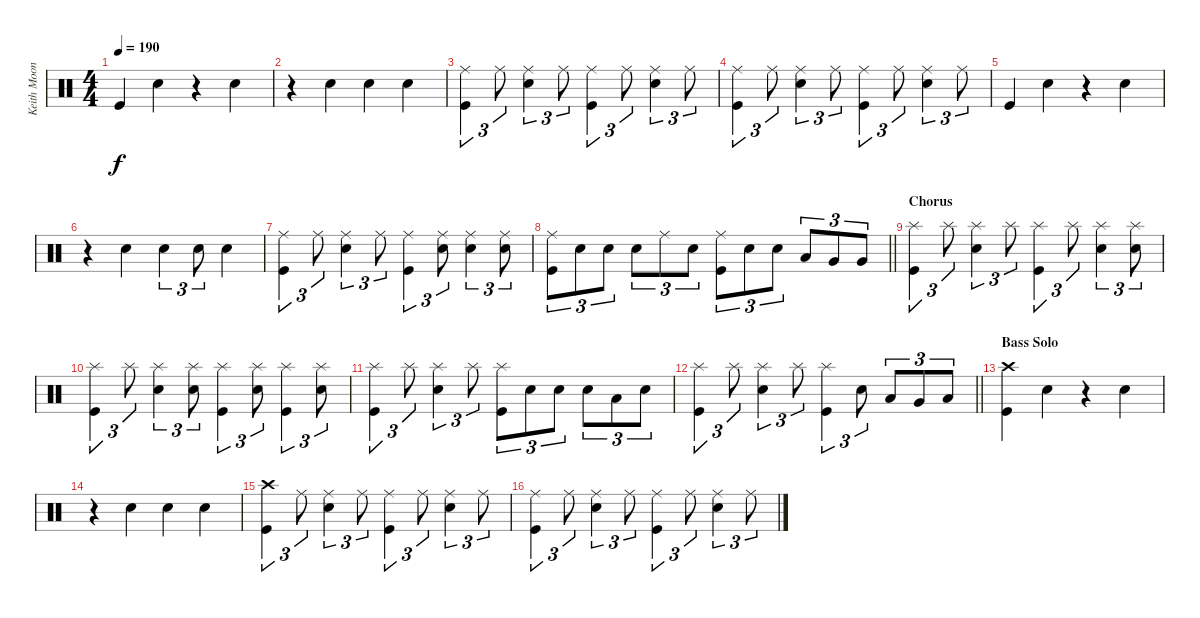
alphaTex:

\track ("Keith Moon" "Keith Moon") {instrument percussion}
\staff {score}
\articulation defaults
\ts (4 4)
\tempo 190
\clef neutral
\ks c "Kick (hit)".4{dy f} "Hand Clap (hit)".4
r.4 "Hand Clap (hit)".4 |
r.4 "Hand Clap (hit)".4 "Hand Clap (hit)".4 "Snare (hit) 2".4 |
("Ride (middle)" "Kick (hit)").4{tu (3 2)} "Ride (middle)".8{tu (3 2)} ("Ride (middle)" "Snare (hit) 2").4{tu (3 2)} "Ride (middle)".8{tu (3 2)} ("Ride (middle)" "Kick (hit)").4{tu (3 2)} "Ride (middle)".8{tu (3 2)} ("Ride (middle)" "Snare (hit) 2").4{tu (3 2)} "Ride (middle)".8{tu (3 2)} |
("Ride (middle)" "Kick (hit)").4{tu (3 2)} "Ride (middle)".8{tu (3 2)} ("Ride (middle)" "Snare (hit) 2").4{tu (3 2)} "Ride (middle)".8{tu (3 2)} ("Ride (middle)" "Kick (hit)").4{tu (3 2)} "Ride (middle)".8{tu (3 2)} ("Ride (middle)" "Snare (hit) 2").4{tu (3 2)} "Ride (middle)".8{tu (3 2)} |
"Kick (hit)".4 "Hand Clap (hit)".4 r.4 "Hand Clap (hit)".4 |
r.4 "Hand Clap (hit)".4 "Hand Clap (hit)".4{tu (3 2)} "Snare (hit) 2".8{tu (3 2)} "Snare (hit) 2".4 |
("Ride (middle)" "Kick (hit)").4{tu (3 2)} "Ride (middle)".8{tu (3 2)} ("Ride (middle)" "Snare (hit) 2").4{tu (3 2)} "Ride (middle)".8{tu (3 2)} ("Ride (middle)" "Kick (hit)").4{tu (3 2)} ("Ride (middle)" "Snare (hit) 2").8{tu (3 2)} ("Ride (middle)" "Snare (hit) 2").4{tu (3 2)} ("Ride (middle)" "Snare (hit) 2").8{tu (3 2)} |
\barLineRight lightlight
("Ride (middle)" "Kick (hit)").8{tu (3 2)} "Snare (hit) 2".8{tu (3 2)} "Snare (hit) 2".8{tu (3 2)} "Snare (hit) 2".8{tu (3 2)} "Ride (middle)".8{tu (3 2)} "Snare (hit) 2".8{tu (3 2)} ("Ride (middle)" "Kick (hit)").8{tu (3 2)} "Snare (hit) 2".8{tu (3 2)} "Snare (hit) 2".8{tu (3 2)} "Low Tom (hit)".8{tu (3 2)} "Very Low Tom (hit)".8{tu (3 2)} "Very Low Tom (hit)".8{tu (3 2)} |
\section ("" "Chorus")
("Splash (hit)" "Kick (hit)").4{tu (3 2)} "Splash (hit)".8{tu (3 2)} ("Splash (hit)" "Snare (hit) 2").4{tu (3 2)} "Splash (hit)".8{tu (3 2)} ("Splash (hit)" "Kick (hit)").4{tu (3 2)} "Splash (hit)".8{tu (3 2)} ("Splash (hit)" "Snare (hit) 2").4{tu (3 2)} ("Splash (hit)" "Snare (hit) 2").8{tu (3 2)} |
("Splash (hit)" "Kick (hit)").4{tu (3 2)} "Splash (hit)".8{tu (3 2)} ("Splash (hit)" "Snare (hit) 2").4{tu (3 2)} ("Splash (hit)" "Snare (hit) 2").8{tu (3 2)} ("Splash (hit)" "Kick (hit)").4{tu (3 2)} ("Splash (hit)" "Snare (hit) 2").8{tu (3 2)} ("Splash (hit)" "Kick (hit)").4{tu (3 2)} ("Splash (hit)" "Snare (hit) 2").8{tu (3 2)} |
("Splash (hit)" "Kick (hit)").4{tu (3 2)} "Splash (hit)".8{tu (3 2)} ("Splash (hit)" "Snare (hit) 2").4{tu (3 2)} "Splash (hit)".8{tu (3 2)} ("Splash (hit)" "Kick (hit)").8{tu (3 2)} "Snare (hit) 2".8{tu (3 2)} "Snare (hit) 2".8{tu (3 2)} "Snare (hit) 2".8{tu (3 2)} "Low Tom (hit)".8{tu (3 2)} "Snare (hit) 2".8{tu (3 2)} |
\barLineRight lightlight
("Splash (hit)" "Kick (hit)").4{tu (3 2)} "Splash (hit)".8{tu (3 2)} ("Splash (hit)" "Snare (hit) 2").4{tu (3 2)} "Splash (hit)".8{tu (3 2)} ("Splash (hit)" "Kick (hit)").4{tu (3 2)} "Snare (hit) 2".8{tu (3 2)} "Low Tom (hit)".8{tu (3 2)} "Very Low Tom (hit)".8{tu (3 2)} "Low Floor Tom (hit)".8{tu (3 2)} |
\section ("" "Bass Solo")
("Crash high (hit)" "Kick (hit)").4 "Hand Clap (hit)".4 r.4 "Hand Clap (hit)".4 |
r.4 "Hand Clap (hit)".4 "Hand Clap (hit)".4 "Snare (hit) 2".4 |
("Crash high (hit)" "Kick (hit)").4{tu (3 2)} "Ride (middle)".8{tu (3 2)} ("Ride (middle)" "Snare (hit) 2").4{tu (3 2)} "Ride (middle)".8{tu (3 2)} ("Ride (middle)" "Kick (hit)").4{tu (3 2)} "Ride (middle)".8{tu (3 2)} ("Ride (middle)" "Snare (hit) 2").4{tu (3 2)} "Ride (middle)".8{tu (3 2)} |
("Ride (middle)" "Kick (hit)").4{tu (3 2)} "Ride (middle)".8{tu (3 2)} ("Ride (middle)" "Snare (hit) 2").4{tu (3 2)} "Ride (middle)".8{tu (3 2)} ("Ride (middle)" "Kick (hit)").4{tu (3 2)} "Ride (middle)".8{tu (3 2)} ("Ride (middle)" "Snare (hit) 2").4{tu (3 2)} "Ride (middle)".8{tu (3 2)}
